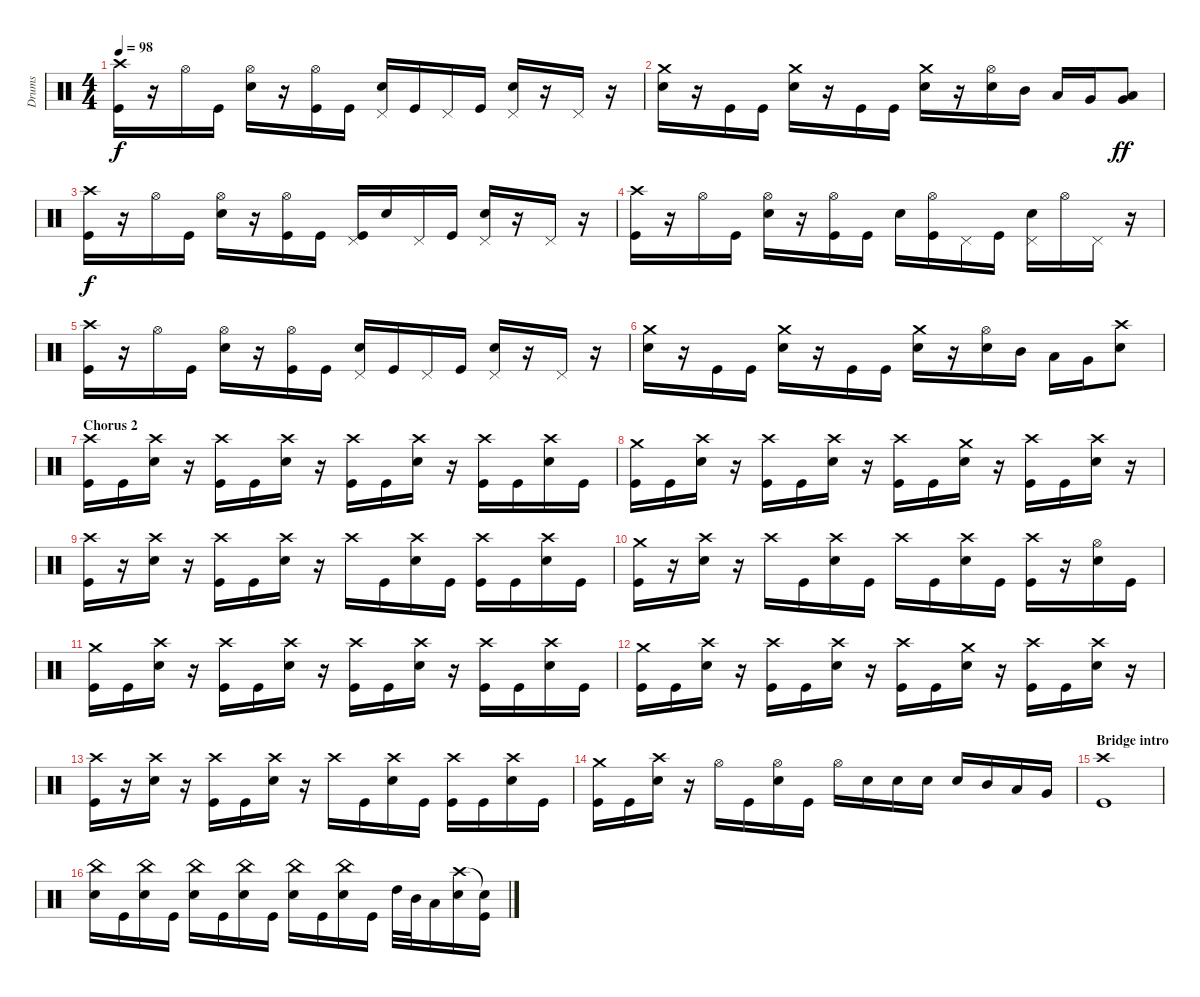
\track ("Drums" "Drums") {instrument percussion}
\staff {score}
\articulation defaults
\ts (4 4)
\tempo 98
\clef neutral
\ks c
("Crash high (hit)" "Kick (hit)").16{dy f} r.16 "Hi-Hat (open)".16 "Kick (hit)".16 ("Hi-Hat (open)" "Electric Snare (hit)").16 r.16 ("Hi-Hat (open)" "Kick (hit)").16 "Kick (hit)".16 ("Pedal Hi-Hat (hit)" "Electric Snare (hit)").16 "Kick (hit)".16 "Pedal Hi-Hat (hit)".16 "Kick (hit)".16 ("Pedal Hi-Hat (hit)" "Electric Snare (hit)").16 r.16 "Pedal Hi-Hat (hit)".16 r.16 |
("Crash medium (hit)" "Electric Snare (hit)").16 r.16 "Kick (hit)".16 "Kick (hit)".16 ("Crash medium (hit)" "Electric Snare (hit)").16 r.16 "Kick (hit)".16 "Kick (hit)".16 ("Crash medium (hit)" "Electric Snare (hit)").16 r.16 ("Hi-Hat (open)" "Electric Snare (hit)").16 "Mid Tom (hit)".16 "Low Tom (hit)".16 "Very Low Tom (hit)".16 ("Low Floor Tom (hit)" "Very Low Tom (hit)").8{dy ff} |
("Crash high (hit)" "Kick (hit)").16{dy f} r.16 "Hi-Hat (open)".16 "Kick (hit)".16 ("Hi-Hat (open)" "Electric Snare (hit)").16 r.16 ("Hi-Hat (open)" "Kick (hit)").16 "Kick (hit)".16 ("Pedal Hi-Hat (hit)" "Kick (hit)").16 "Electric Snare (hit)".16 "Pedal Hi-Hat (hit)".16 "Kick (hit)".16 ("Pedal Hi-Hat (hit)" "Electric Snare (hit)").16 r.16 "Pedal Hi-Hat (hit)".16 r.16 |
("Crash high (hit)" "Kick (hit)").16 r.16 "Hi-Hat (open)".16 "Kick (hit)".16 ("Hi-Hat (open)" "Electric Snare (hit)").16 r.16 ("Hi-Hat (open)" "Kick (hit)").16 "Kick (hit)".16 "Electric Snare (hit)".16 ("Hi-Hat (open)" "Kick (hit)").16 "Pedal Hi-Hat (hit)".16 "Kick (hit)".16 ("Pedal Hi-Hat (hit)" "Electric Snare (hit)").16 "Hi-Hat (open)".16 "Pedal Hi-Hat (hit)".16 r.16 |
("Crash high (hit)" "Kick (hit)").16 r.16 "Hi-Hat (open)".16 "Kick (hit)".16 ("Hi-Hat (open)" "Electric Snare (hit)").16 r.16 ("Hi-Hat (open)" "Kick (hit)").16 "Kick (hit)".16 ("Pedal Hi-Hat (hit)" "Electric Snare (hit)").16 "Kick (hit)".16 "Pedal Hi-Hat (hit)".16 "Kick (hit)".16 ("Pedal Hi-Hat (hit)" "Electric Snare (hit)").16 r.16 "Pedal Hi-Hat (hit)".16 r.16 |
("Crash medium (hit)" "Electric Snare (hit)").16 r.16 "Kick (hit)".16 "Kick (hit)".16 ("Crash medium (hit)" "Electric Snare (hit)").16 r.16 "Kick (hit)".16 "Kick (hit)".16 ("Crash medium (hit)" "Electric Snare (hit)").16 r.16 ("Hi-Hat (open)" "Electric Snare (hit)").16 "Mid Tom (hit)".16 "Low Tom (hit)".16 "Very Low Tom (hit)".16 ("Crash high (hit)" "Electric Snare (hit)").8 |
\section ("" "Chorus 2")
("Crash high (hit)" "Kick (hit)").16 "Kick (hit)".16 ("Crash high (hit)" "Electric Snare (hit)").16 r.16 ("Crash high (hit)" "Kick (hit)").16 "Kick (hit)".16 ("Crash high (hit)" "Electric Snare (hit)").16 r.16 ("Crash high (hit)" "Kick (hit)").16 "Kick (hit)".16 ("Crash high (hit)" "Electric Snare (hit)").16 r.16 ("Crash high (hit)" "Kick (hit)").16 "Kick (hit)".16 ("Crash high (hit)" "Electric Snare (hit)").16 "Kick (hit)".16 |
("Crash medium (hit)" "Kick (hit)").16 "Kick (hit)".16 ("Crash high (hit)" "Electric Snare (hit)").16 r.16 ("Crash high (hit)" "Kick (hit)").16 "Kick (hit)".16 ("Crash high (hit)" "Electric Snare (hit)").16 r.16 ("Crash high (hit)" "Kick (hit)").16 "Kick (hit)".16 ("Crash medium (hit)" "Electric Snare (hit)").16 r.16 ("Crash high (hit)" "Kick (hit)").16 "Kick (hit)".16 ("Crash high (hit)" "Electric Snare (hit)").16 r.16 |
("Crash high (hit)" "Kick (hit)").16 r.16 ("Crash high (hit)" "Electric Snare (hit)").16 r.16 ("Crash high (hit)" "Kick (hit)").16 "Kick (hit)".16 ("Crash high (hit)" "Electric Snare (hit)").16 r.16 "Crash high (hit)".16 "Kick (hit)".16 ("Crash high (hit)" "Electric Snare (hit)").16 "Kick (hit)".16 ("Crash high (hit)" "Kick (hit)").16 "Kick (hit)".16 ("Crash high (hit)" "Electric Snare (hit)").16 "Kick (hit)".16 |
("Crash medium (hit)" "Kick (hit)").16 r.16 ("Crash high (hit)" "Electric Snare (hit)").16 r.16 "Crash high (hit)".16 "Kick (hit)".16 ("Crash high (hit)" "Electric Snare (hit)").16 "Kick (hit)".16 "Crash high (hit)".16 "Kick (hit)".16 ("Crash high (hit)" "Electric Snare (hit)").16 "Kick (hit)".16 ("Crash high (hit)" "Kick (hit)").16 r.16 ("Hi-Hat (open)" "Electric Snare (hit)").16 "Kick (hit)".16 |
("Crash medium (hit)" "Kick (hit)").16 "Kick (hit)".16 ("Crash high (hit)" "Electric Snare (hit)").16 r.16 ("Crash high (hit)" "Kick (hit)").16 "Kick (hit)".16 ("Crash high (hit)" "Electric Snare (hit)").16 r.16 ("Crash high (hit)" "Kick (hit)").16 "Kick (hit)".16 ("Crash high (hit)" "Electric Snare (hit)").16 r.16 ("Crash high (hit)" "Kick (hit)").16 "Kick (hit)".16 ("Crash high (hit)" "Electric Snare (hit)").16 "Kick (hit)".16 |
("Crash medium (hit)" "Kick (hit)").16 "Kick (hit)".16 ("Crash high (hit)" "Electric Snare (hit)").16 r.16 ("Crash high (hit)" "Kick (hit)").16 "Kick (hit)".16 ("Crash high (hit)" "Electric Snare (hit)").16 r.16 ("Crash high (hit)" "Kick (hit)").16 "Kick (hit)".16 ("Crash medium (hit)" "Electric Snare (hit)").16 r.16 ("Crash high (hit)" "Kick (hit)").16 "Kick (hit)".16 ("Crash high (hit)" "Electric Snare (hit)").16 r.16 |
("Crash high (hit)" "Kick (hit)").16 r.16 ("Crash high (hit)" "Electric Snare (hit)").16 r.16 ("Crash high (hit)" "Kick (hit)").16 "Kick (hit)".16 ("Crash high (hit)" "Electric Snare (hit)").16 r.16 "Crash high (hit)".16 "Kick (hit)".16 ("Crash high (hit)" "Electric Snare (hit)").16 "Kick (hit)".16 ("Crash high (hit)" "Kick (hit)").16 "Kick (hit)".16 ("Crash high (hit)" "Electric Snare (hit)").16 "Kick (hit)".16 |
("Crash medium (hit)" "Kick (hit)").16 "Kick (hit)".16 ("Crash high (hit)" "Electric Snare (hit)").16 r.16 "Hi-Hat (open)".16 "Kick (hit)".16 ("Hi-Hat (open)" "Electric Snare (hit)").16 "Kick (hit)".16 "Hi-Hat (open)".16 "Electric Snare (hit)".16 "Electric Snare (hit)".16 "Electric Snare (hit)".16 "Electric Snare (hit)".16 "Mid Tom (hit)".16 "Low Tom (hit)".16 "Very Low Tom (hit)".16 |
\section ("" "Bridge intro")
("Crash high (hit)" "Kick (hit)").1 |
("China (hit)" "Electric Snare (hit)").16 "Kick (hit)".16 ("China (hit)" "Electric Snare (hit)").16 "Kick (hit)".16 ("China (hit)" "Electric Snare (hit)").16 "Kick (hit)".16 ("China (hit)" "Electric Snare (hit)").16 "Kick (hit)".16 ("China (hit)" "Electric Snare (hit)").16 "Kick (hit)".16 ("China (hit)" "Electric Snare (hit)").16 "Kick (hit)".16 "High Tom (hit)".32 "Mid Tom (hit)".32 "Low Tom (hit)".16 ("Crash high (hit)" "Electric Snare (hit)").16 ("Snare (hit)"{t} "Kick (hit)").16
